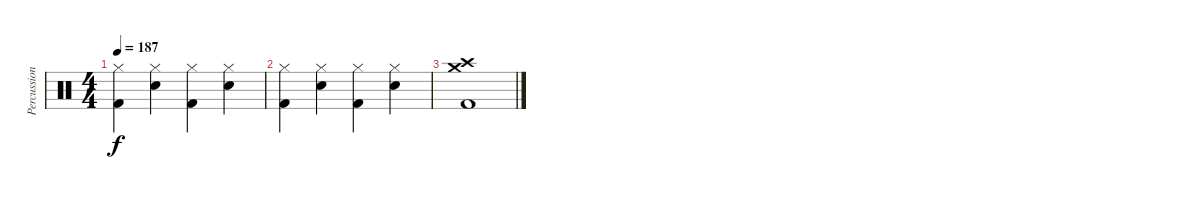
\track ("Percussion" "Percussion") {instrument percussion}
\staff {score}
\articulation defaults
\ts (4 4)
\tempo 187
\clef neutral
\ks c
("Kick (hit) 2" "Hi-Hat (closed)").4{dy f} ("Snare (hit) 2" "Hi-Hat (closed)").4 ("Kick (hit) 2" "Hi-Hat (closed)").4 ("Snare (hit) 2" "Hi-Hat (closed)").4 |
("Kick (hit) 2" "Hi-Hat (closed)").4 ("Snare (hit) 2" "Hi-Hat (closed)").4 ("Kick (hit) 2" "Hi-Hat (closed)").4 ("Snare (hit) 2" "Hi-Hat (closed)").4 |
("Kick (hit) 2" "Crash medium (hit)" "Crash high (hit)").1
